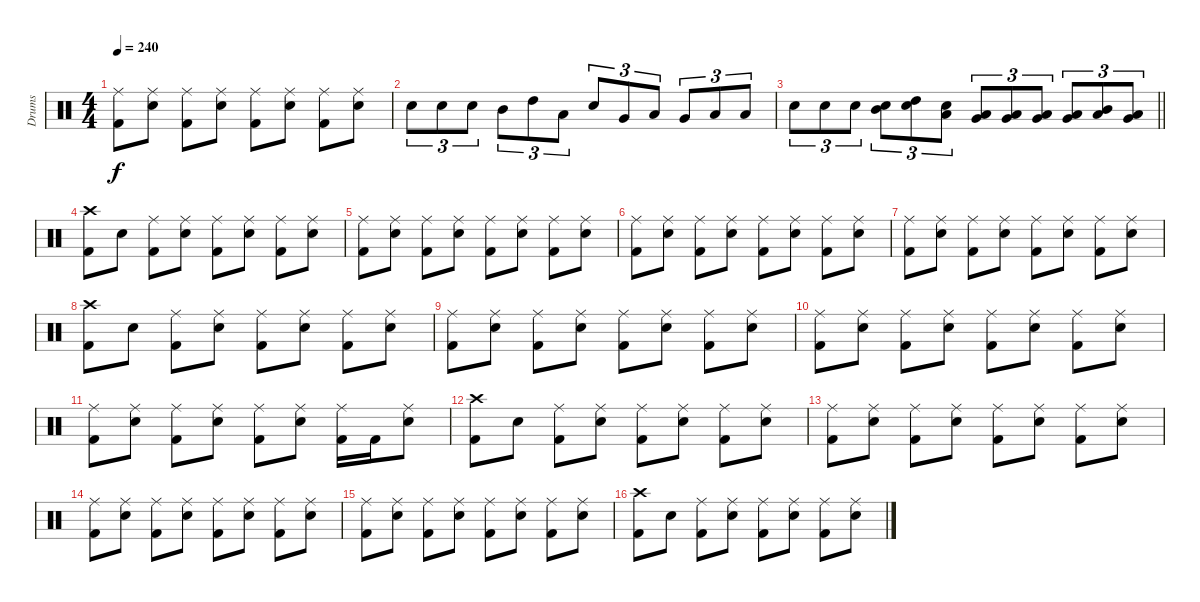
\track ("Drums" "Drums") {instrument percussion}
\staff {score}
\articulation defaults
\ts (4 4)
\tempo 240
\clef neutral
\ks c
("Ride (middle)" "Kick (hit) 2").8{dy f} ("Ride (middle)" "Electric Snare (hit)").8 ("Ride (middle)" "Kick (hit) 2").8 ("Ride (middle)" "Electric Snare (hit)").8 ("Ride (middle)" "Kick (hit) 2").8 ("Ride (middle)" "Electric Snare (hit)").8 ("Ride (middle)" "Kick (hit) 2").8 ("Ride (middle)" "Electric Snare (hit)").8 |
"Electric Snare (hit)".8{tu (3 2)} "Electric Snare (hit)".8{tu (3 2)} "Electric Snare (hit)".8{tu (3 2)} "Mid Tom (hit)".8{tu (3 2)} "High Tom (hit)".8{tu (3 2)} "Low Tom (hit)".8{tu (3 2)} "Electric Snare (hit)".8{tu (3 2)} "Very Low Tom (hit)".8{tu (3 2)} "Low Floor Tom (hit)".8{tu (3 2)} "Very Low Tom (hit)".8{tu (3 2)} "Low Tom (hit)".8{tu (3 2)} "Low Floor Tom (hit)".8{tu (3 2)} |
\barLineRight lightlight "Electric Snare (hit)".8{tu (3 2)} "Electric Snare (hit)".8{tu (3 2)} "Electric Snare (hit)".8{tu (3 2)}
("Mid Tom (hit)" "Electric Snare (hit)").8{tu (3 2)} ("High Tom (hit)" "Electric Snare (hit)").8{tu (3 2)} ("Low Tom (hit)" "Electric Snare (hit)").8{tu (3 2)} ("Very Low Tom (hit)" "Low Floor Tom (hit)").8{tu (3 2)} ("Low Tom (hit)" "Very Low Tom (hit)").8{tu (3 2)} ("Very Low Tom (hit)" "Low Floor Tom (hit)").8{tu (3 2)} ("Low Tom (hit)" "Very Low Tom (hit)").8{tu (3 2)} ("Mid Tom (hit)" "Low Tom (hit)").8{tu (3 2)} ("Very Low Tom (hit)" "Low Floor Tom (hit)").8{tu (3 2)} |
("Crash high (hit)" "Kick (hit) 2").8 "Electric Snare (hit)".8 ("Ride (middle)" "Kick (hit) 2").8 ("Ride (middle)" "Electric Snare (hit)").8 ("Ride (middle)" "Kick (hit) 2").8 ("Ride (middle)" "Electric Snare (hit)").8 ("Ride (middle)" "Kick (hit) 2").8 ("Ride (middle)" "Electric Snare (hit)").8 |
("Ride (middle)" "Kick (hit) 2").8 ("Ride (middle)" "Electric Snare (hit)").8 ("Ride (middle)" "Kick (hit) 2").8 ("Ride (middle)" "Electric Snare (hit)").8 ("Ride (middle)" "Kick (hit) 2").8 ("Ride (middle)" "Electric Snare (hit)").8 ("Ride (middle)" "Kick (hit) 2").8 ("Ride (middle)" "Electric Snare (hit)").8 |
("Ride (middle)" "Kick (hit) 2").8 ("Ride (middle)" "Electric Snare (hit)").8 ("Ride (middle)" "Kick (hit) 2").8 ("Ride (middle)" "Electric Snare (hit)").8 ("Ride (middle)" "Kick (hit) 2").8 ("Ride (middle)" "Electric Snare (hit)").8 ("Ride (middle)" "Kick (hit) 2").8 ("Ride (middle)" "Electric Snare (hit)").8 |
("Ride (middle)" "Kick (hit) 2").8 ("Ride (middle)" "Electric Snare (hit)").8 ("Ride (middle)" "Kick (hit) 2").8 ("Ride (middle)" "Electric Snare (hit)").8 ("Ride (middle)" "Kick (hit) 2").8 ("Ride (middle)" "Electric Snare (hit)").8 ("Ride (middle)" "Kick (hit) 2").8 ("Ride (middle)" "Electric Snare (hit)").8 |
("Crash high (hit)" "Kick (hit) 2").8 "Electric Snare (hit)".8 ("Ride (middle)" "Kick (hit) 2").8 ("Ride (middle)" "Electric Snare (hit)").8 ("Ride (middle)" "Kick (hit) 2").8 ("Ride (middle)" "Electric Snare (hit)").8 ("Ride (middle)" "Kick (hit) 2").8 ("Ride (middle)" "Electric Snare (hit)").8 |
("Ride (middle)" "Kick (hit) 2").8 ("Ride (middle)" "Electric Snare (hit)").8 ("Ride (middle)" "Kick (hit) 2").8 ("Ride (middle)" "Electric Snare (hit)").8 ("Ride (middle)" "Kick (hit) 2").8 ("Ride (middle)" "Electric Snare (hit)").8 ("Ride (middle)" "Kick (hit) 2").8 ("Ride (middle)" "Electric Snare (hit)").8 |
("Ride (middle)" "Kick (hit) 2").8 ("Ride (middle)" "Electric Snare (hit)").8 ("Ride (middle)" "Kick (hit) 2").8 ("Ride (middle)" "Electric Snare (hit)").8 ("Ride (middle)" "Kick (hit) 2").8 ("Ride (middle)" "Electric Snare (hit)").8 ("Ride (middle)" "Kick (hit) 2").8 ("Ride (middle)" "Electric Snare (hit)").8 |
("Ride (middle)" "Kick (hit) 2").8 ("Ride (middle)" "Electric Snare (hit)").8 ("Ride (middle)" "Kick (hit) 2").8 ("Ride (middle)" "Electric Snare (hit)").8 ("Ride (middle)" "Kick (hit) 2").8 ("Ride (middle)" "Electric Snare (hit)").8 ("Ride (middle)" "Kick (hit) 2").16 "Kick (hit) 2".16 ("Ride (middle)" "Electric Snare (hit)").8 |
("Crash high (hit)" "Kick (hit) 2").8 "Electric Snare (hit)".8 ("Ride (middle)" "Kick (hit) 2").8 ("Ride (middle)" "Electric Snare (hit)").8 ("Ride (middle)" "Kick (hit) 2").8 ("Ride (middle)" "Electric Snare (hit)").8 ("Ride (middle)" "Kick (hit) 2").8 ("Ride (middle)" "Electric Snare (hit)").8 |
("Ride (middle)" "Kick (hit) 2").8 ("Ride (middle)" "Electric Snare (hit)").8 ("Ride (middle)" "Kick (hit) 2").8 ("Ride (middle)" "Electric Snare (hit)").8 ("Ride (middle)" "Kick (hit) 2").8 ("Ride (middle)" "Electric Snare (hit)").8 ("Ride (middle)" "Kick (hit) 2").8 ("Ride (middle)" "Electric Snare (hit)").8 |
("Ride (middle)" "Kick (hit) 2").8 ("Ride (middle)" "Electric Snare (hit)").8 ("Ride (middle)" "Kick (hit) 2").8 ("Ride (middle)" "Electric Snare (hit)").8 ("Ride (middle)" "Kick (hit) 2").8 ("Ride (middle)" "Electric Snare (hit)").8 ("Ride (middle)" "Kick (hit) 2").8 ("Ride (middle)" "Electric Snare (hit)").8 |
("Ride (middle)" "Kick (hit) 2").8 ("Ride (middle)" "Electric Snare (hit)").8 ("Ride (middle)" "Kick (hit) 2").8 ("Ride (middle)" "Electric Snare (hit)").8 ("Ride (middle)" "Kick (hit) 2").8 ("Ride (middle)" "Electric Snare (hit)").8 ("Ride (middle)" "Kick (hit) 2").8 ("Ride (middle)" "Electric Snare (hit)").8 |
("Crash high (hit)" "Kick (hit) 2").8 "Electric Snare (hit)".8 ("Ride (middle)" "Kick (hit) 2").8 ("Ride (middle)" "Electric Snare (hit)").8 ("Ride (middle)" "Kick (hit) 2").8 ("Ride (middle)" "Electric Snare (hit)").8 ("Ride (middle)" "Kick (hit) 2").8 ("Ride (middle)" "Electric Snare (hit)").8
